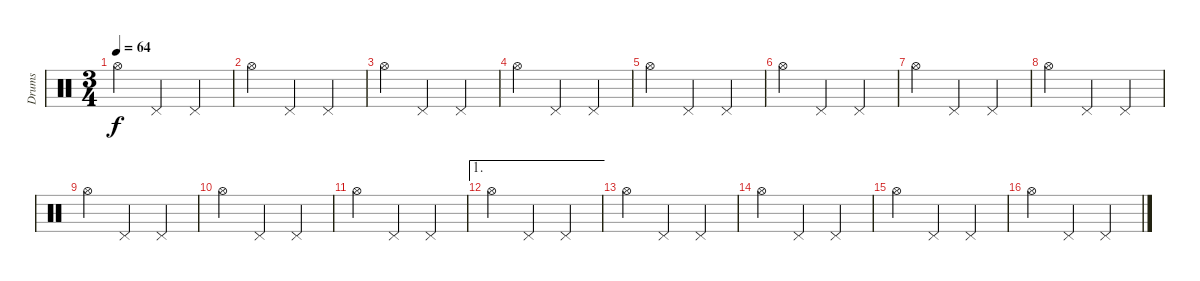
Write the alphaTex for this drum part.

\track ("Drums" "Drums") {instrument percussion}
\staff {score}
\articulation defaults
\ts (3 4)
\tempo 64
\clef neutral
\ks c "Hi-Hat (open)".4{dy f} "Pedal Hi-Hat (hit)".4 "Pedal Hi-Hat (hit)".4
|
"Hi-Hat (open)".4 "Pedal Hi-Hat (hit)".4 "Pedal Hi-Hat (hit)".4 |
"Hi-Hat (open)".4 "Pedal Hi-Hat (hit)".4 "Pedal Hi-Hat (hit)".4 |
"Hi-Hat (open)".4 "Pedal Hi-Hat (hit)".4 "Pedal Hi-Hat (hit)".4 |
"Hi-Hat (open)".4 "Pedal Hi-Hat (hit)".4 "Pedal Hi-Hat (hit)".4 |
"Hi-Hat (open)".4 "Pedal Hi-Hat (hit)".4 "Pedal Hi-Hat (hit)".4 |
"Hi-Hat (open)".4 "Pedal Hi-Hat (hit)".4 "Pedal Hi-Hat (hit)".4 |
"Hi-Hat (open)".4 "Pedal Hi-Hat (hit)".4 "Pedal Hi-Hat (hit)".4 |
"Hi-Hat (open)".4 "Pedal Hi-Hat (hit)".4 "Pedal Hi-Hat (hit)".4 |
"Hi-Hat (open)".4 "Pedal Hi-Hat (hit)".4 "Pedal Hi-Hat (hit)".4 |
"Hi-Hat (open)".4 "Pedal Hi-Hat (hit)".4 "Pedal Hi-Hat (hit)".4 |
\ae 1 "Hi-Hat (open)".4 "Pedal Hi-Hat (hit)".4 "Pedal Hi-Hat (hit)".4
|
"Hi-Hat (open)".4 "Pedal Hi-Hat (hit)".4 "Pedal Hi-Hat (hit)".4 |
"Hi-Hat (open)".4 "Pedal Hi-Hat (hit)".4 "Pedal Hi-Hat (hit)".4 |
"Hi-Hat (open)".4 "Pedal Hi-Hat (hit)".4 "Pedal Hi-Hat (hit)".4 |
"Hi-Hat (open)".4 "Pedal Hi-Hat (hit)".4 "Pedal Hi-Hat (hit)".4
